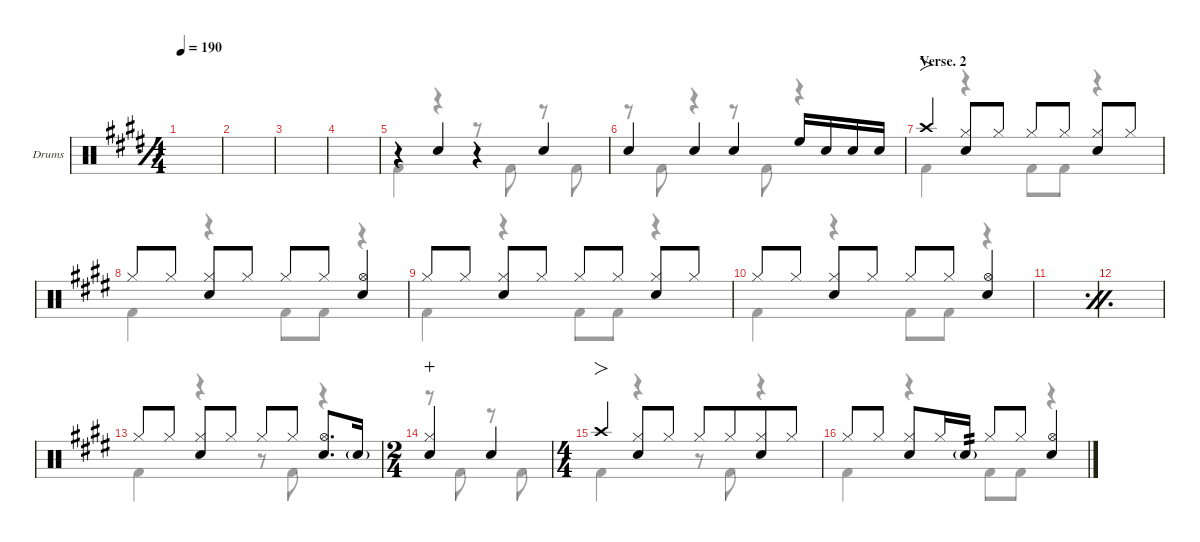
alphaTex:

\defaultSystemsLayout 4
\hideDynamics
\bracketExtendMode nobrackets
\firstSystemTrackNameOrientation horizontal
\track ("Drums" "Drums") {defaultSystemsLayout 4 instrument percussion}
\staff {score}
\articulation defaults
\voice
\ts (4 4)
\tempo 190
\clef neutral
\simile simple
\ks e
|
|
|
|
r.4 "Snare (hit) 2"{acc forcenatural}.4 r.4 "Snare (hit) 2"{acc forcenatural}.4 |
"Snare (hit) 2"{acc forcenatural}.4 "Snare (hit) 2"{acc forcenatural}.4 "Snare (hit) 2"{acc forcenatural}.4 "High Floor Tom (hit)"{acc forcenatural}.16 "Snare (hit) 2"{acc forcenatural}.16{dy mf} "Snare (hit) 2"{acc forcenatural}.16{dy f} "Snare (hit) 2"{acc forcenatural}.16{dy mf beam split} |
\section ("" "Verse. 2")
"Crash high (hit)"{acc forcenatural}.4{fo dy f} ("Hi-Hat (closed)"{acc forcenatural} "Snare (hit) 2"{acc forcenatural}).8 "Hi-Hat (closed)"{acc forcenatural}.8{dy mf} "Hi-Hat (closed)"{acc forcenatural}.8{dy f} "Hi-Hat (closed)"{acc forcenatural}.8{dy mf} ("Hi-Hat (closed)"{acc forcenatural} "Snare (hit) 2"{acc forcenatural}).8{dy f} "Hi-Hat (closed)"{acc forcenatural}.8{dy mf} |
"Hi-Hat (closed)"{acc forcenatural}.8{dy f} "Hi-Hat (closed)"{acc forcenatural}.8{dy mf} ("Hi-Hat (closed)"{acc forcenatural} "Snare (hit) 2"{acc forcenatural}).8{dy f} "Hi-Hat (closed)"{acc forcenatural}.8{dy mf} "Hi-Hat (closed)"{acc forcenatural}.8{dy f} "Hi-Hat (closed)"{acc forcenatural}.8{dy mf} ("Hi-Hat (open)"{acc forcenatural} "Snare (hit) 2"{acc forcenatural}).4{dy f} |
"Hi-Hat (closed)"{acc forcenatural}.8 "Hi-Hat (closed)"{acc forcenatural}.8{dy mf} ("Hi-Hat (closed)"{acc forcenatural} "Snare (hit) 2"{acc forcenatural}).8{dy f} "Hi-Hat (closed)"{acc forcenatural}.8{dy mf} "Hi-Hat (closed)"{acc forcenatural}.8{dy f} "Hi-Hat (closed)"{acc forcenatural}.8{dy mf} ("Hi-Hat (closed)"{acc forcenatural} "Snare (hit) 2"{acc forcenatural}).8{dy f} "Hi-Hat (closed)"{acc forcenatural}.8{dy mf} |
"Hi-Hat (closed)"{acc forcenatural}.8{dy f} "Hi-Hat (closed)"{acc forcenatural}.8{dy mf} ("Hi-Hat (closed)"{acc forcenatural} "Snare (hit) 2"{acc forcenatural}).8{dy f} "Hi-Hat (closed)"{acc forcenatural}.8{dy mf} "Hi-Hat (closed)"{acc forcenatural}.8{dy f} "Hi-Hat (closed)"{acc forcenatural}.8{dy mf} ("Hi-Hat (open)"{acc forcenatural} "Snare (hit) 2"{acc forcenatural}).4{dy f} |
\simile firstofdouble
|
\simile secondofdouble
|
\simile none "Hi-Hat (closed)"{acc forcenatural}.8 "Hi-Hat (closed)"{acc forcenatural}.8{dy mf}
("Hi-Hat (closed)"{acc forcenatural} "Snare (hit) 2"{acc forcenatural}).8{dy f} "Hi-Hat (closed)"{acc forcenatural}.8{dy mf} "Hi-Hat (closed)"{acc forcenatural}.8{dy f} "Hi-Hat (closed)"{acc forcenatural}.8{dy mf beam split} ("Hi-Hat (open)"{acc forcenatural} "Snare (hit) 2"{acc forcenatural}).8{d dy f} "Snare (hit) 2"{g acc forcenatural}.16{dy mf} |
\ts (2 4)
\beaming (8 2 2)
("Snare (hit) 2"{acc forcenatural} "Hi-Hat (closed)"{acc forcenatural}).4{dy f wahc} "Snare (hit) 2"{acc forcenatural}.4 |
\ts (4 4)
\beaming (8 4 4)
"Crash high (hit)"{acc forcenatural}.4{fo} ("Hi-Hat (closed)"{acc forcenatural} "Snare (hit) 2"{acc forcenatural}).8 "Hi-Hat (closed)"{acc forcenatural}.8{dy mf} "Hi-Hat (closed)"{acc forcenatural}.8{dy f} "Hi-Hat (closed)"{acc forcenatural}.8{dy mf} ("Hi-Hat (closed)"{acc forcenatural} "Snare (hit) 2"{acc forcenatural}).8{dy f} "Hi-Hat (closed)"{acc forcenatural}.8{dy mf} |
"Hi-Hat (closed)"{acc forcenatural}.8{dy f} "Hi-Hat (closed)"{acc forcenatural}.8{dy mf beam split} ("Hi-Hat (closed)"{acc forcenatural} "Snare (hit) 2"{acc forcenatural}).8{dy f} "Hi-Hat (closed)"{acc forcenatural}.16{dy mf} "Snare (hit) 2"{g acc forcenatural}.16{tp 2 dy mp} "Hi-Hat (closed)"{acc forcenatural}.8{dy f} "Hi-Hat (closed)"{acc forcenatural}.8{dy mf} ("Hi-Hat (open)"{acc forcenatural} "Snare (hit) 2"{acc forcenatural}).4{dy f}
\voice
\clef neutral
\ottava regular
\simile simple
\ks e
|
|
|
|
\simile none "Kick (hit) 2"{acc forcenatural}.4
r.4 r.8 "Kick (hit) 2"{acc forcenatural}.8 r.8 "Kick (hit) 2"{acc forcenatural}.8 |
r.8 "Kick (hit) 2"{acc forcenatural}.8 r.4 r.8 "Kick (hit) 2"{acc forcenatural}.8 r.4 |
"Kick (hit) 2"{acc forcenatural}.4 r.4 "Kick (hit) 2"{acc forcenatural}.8 "Kick (hit) 2"{acc forcenatural}.8 r.4 |
"Kick (hit) 2"{acc forcenatural}.4 r.4 "Kick (hit) 2"{acc forcenatural}.8 "Kick (hit) 2"{acc forcenatural}.8 r.4 |
"Kick (hit) 2"{acc forcenatural}.4 r.4 "Kick (hit) 2"{acc forcenatural}.8 "Kick (hit) 2"{acc forcenatural}.8 r.4 |
"Kick (hit) 2"{acc forcenatural}.4 r.4 "Kick (hit) 2"{acc forcenatural}.8 "Kick (hit) 2"{acc forcenatural}.8 r.4 |
\simile firstofdouble
|
\simile secondofdouble
|
\simile none "Kick (hit) 2"{acc forcenatural}.4
r.4 r.8 "Kick (hit) 2"{acc forcenatural}.8 r.4 |
r.8 "Kick (hit) 2"{acc forcenatural}.8 r.8 "Kick (hit) 2"{acc forcenatural}.8 |
"Kick (hit) 2"{acc forcenatural}.4 r.4 r.8 "Kick (hit) 2"{acc forcenatural}.8 r.4 |
"Kick (hit) 2"{acc forcenatural}.4 r.4 "Kick (hit) 2"{acc forcenatural}.8 "Kick (hit) 2"{acc forcenatural}.8 r.4
